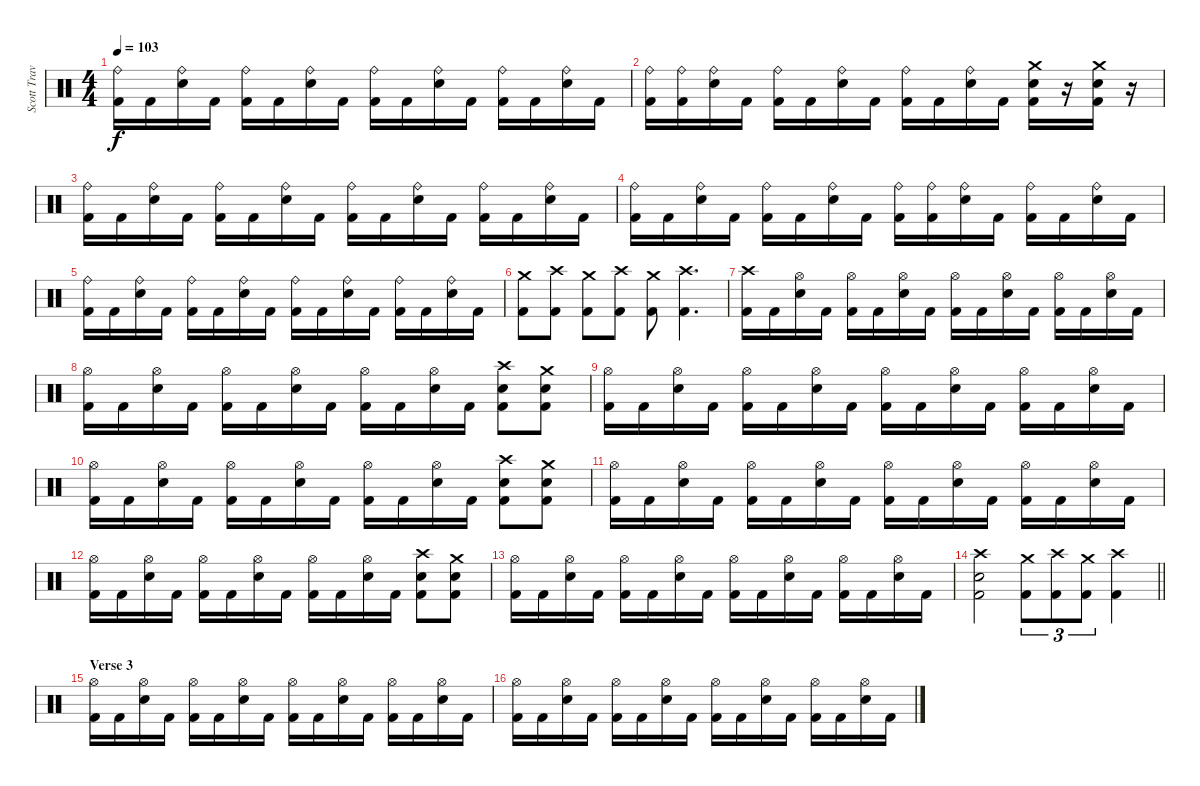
\track ("Scott Travis" "Scott Trav") {instrument percussion}
\staff {score}
\articulation defaults
\ts (4 4)
\tempo 103
\clef neutral
\ks c
("Ride (bell)" "Kick (hit) 2").16{dy f} "Kick (hit) 2".16 ("Ride (bell)" "Snare (hit) 2").16 "Kick (hit) 2".16 ("Ride (bell)" "Kick (hit) 2").16 "Kick (hit) 2".16 ("Ride (bell)" "Snare (hit) 2").16 "Kick (hit) 2".16 ("Ride (bell)" "Kick (hit) 2").16 "Kick (hit) 2".16 ("Ride (bell)" "Snare (hit) 2").16 "Kick (hit) 2".16 ("Ride (bell)" "Kick (hit) 2").16 "Kick (hit) 2".16 ("Ride (bell)" "Snare (hit) 2").16 "Kick (hit) 2".16 |
("Ride (bell)" "Kick (hit) 2").16 ("Ride (bell)" "Kick (hit) 2").16 ("Ride (bell)" "Snare (hit) 2").16 "Kick (hit) 2".16 ("Ride (bell)" "Kick (hit) 2").16 "Kick (hit) 2".16 ("Ride (bell)" "Snare (hit) 2").16 "Kick (hit) 2".16 ("Ride (bell)" "Kick (hit) 2").16 "Kick (hit) 2".16 ("Ride (bell)" "Snare (hit) 2").16 "Kick (hit) 2".16 ("Crash medium (hit)" "Snare (hit) 2" "Kick (hit) 2").16 r.16 ("Crash medium (hit)" "Snare (hit) 2" "Kick (hit) 2").16 r.16 |
("Ride (bell)" "Kick (hit) 2").16 "Kick (hit) 2".16 ("Ride (bell)" "Snare (hit) 2").16 "Kick (hit) 2".16 ("Ride (bell)" "Kick (hit) 2").16 "Kick (hit) 2".16 ("Ride (bell)" "Snare (hit) 2").16 "Kick (hit) 2".16 ("Ride (bell)" "Kick (hit) 2").16 "Kick (hit) 2".16 ("Ride (bell)" "Snare (hit) 2").16 "Kick (hit) 2".16 ("Ride (bell)" "Kick (hit) 2").16 "Kick (hit) 2".16 ("Ride (bell)" "Snare (hit) 2").16 "Kick (hit) 2".16 |
("Ride (bell)" "Kick (hit) 2").16 "Kick (hit) 2".16 ("Ride (bell)" "Snare (hit) 2").16 "Kick (hit) 2".16 ("Ride (bell)" "Kick (hit) 2").16 "Kick (hit) 2".16 ("Ride (bell)" "Snare (hit) 2").16 "Kick (hit) 2".16 ("Ride (bell)" "Kick (hit) 2").16 ("Ride (bell)" "Kick (hit) 2").16 ("Ride (bell)" "Snare (hit) 2").16 "Kick (hit) 2".16 ("Ride (bell)" "Kick (hit) 2").16 "Kick (hit) 2".16 ("Ride (bell)" "Snare (hit) 2").16 "Kick (hit) 2".16 |
("Ride (bell)" "Kick (hit) 2").16 "Kick (hit) 2".16 ("Ride (bell)" "Snare (hit) 2").16 "Kick (hit) 2".16 ("Ride (bell)" "Kick (hit) 2").16 "Kick (hit) 2".16 ("Ride (bell)" "Snare (hit) 2").16 "Kick (hit) 2".16 ("Ride (bell)" "Kick (hit) 2").16 "Kick (hit) 2".16 ("Ride (bell)" "Snare (hit) 2").16 "Kick (hit) 2".16 ("Ride (bell)" "Kick (hit) 2").16 "Kick (hit) 2".16 ("Ride (bell)" "Snare (hit) 2").16 "Kick (hit) 2".16 |
("Crash medium (hit)" "Kick (hit) 2").8 ("Crash high (hit)" "Kick (hit) 2").8 ("Crash medium (hit)" "Kick (hit) 2").8 ("Crash high (hit)" "Kick (hit) 2").8 ("Crash medium (hit)" "Kick (hit) 2").8 ("Crash high (hit)" "Kick (hit) 2").4{d} |
("Crash high (hit)" "Kick (hit) 2").16 "Kick (hit) 2".16 ("Hi-Hat (open)" "Snare (hit) 2").16 "Kick (hit) 2".16 ("Hi-Hat (open)" "Kick (hit) 2").16 "Kick (hit) 2".16 ("Hi-Hat (open)" "Snare (hit) 2").16 "Kick (hit) 2".16 ("Hi-Hat (open)" "Kick (hit) 2").16 "Kick (hit) 2".16 ("Hi-Hat (open)" "Snare (hit) 2").16 "Kick (hit) 2".16 ("Hi-Hat (open)" "Kick (hit) 2").16 "Kick (hit) 2".16 ("Hi-Hat (open)" "Snare (hit) 2").16 "Kick (hit) 2".16 |
("Hi-Hat (open)" "Kick (hit) 2").16 "Kick (hit) 2".16 ("Hi-Hat (open)" "Snare (hit) 2").16 "Kick (hit) 2".16 ("Hi-Hat (open)" "Kick (hit) 2").16 "Kick (hit) 2".16 ("Hi-Hat (open)" "Snare (hit) 2").16 "Kick (hit) 2".16 ("Hi-Hat (open)" "Kick (hit) 2").16 "Kick (hit) 2".16 ("Hi-Hat (open)" "Snare (hit) 2").16 "Kick (hit) 2".16 ("Crash high (hit)" "Snare (hit) 2" "Kick (hit) 2").8 ("Crash medium (hit)" "Snare (hit) 2" "Kick (hit) 2").8 |
("Hi-Hat (open)" "Kick (hit) 2").16 "Kick (hit) 2".16 ("Hi-Hat (open)" "Snare (hit) 2").16 "Kick (hit) 2".16 ("Hi-Hat (open)" "Kick (hit) 2").16 "Kick (hit) 2".16 ("Hi-Hat (open)" "Snare (hit) 2").16 "Kick (hit) 2".16 ("Hi-Hat (open)" "Kick (hit) 2").16 "Kick (hit) 2".16 ("Hi-Hat (open)" "Snare (hit) 2").16 "Kick (hit) 2".16 ("Hi-Hat (open)" "Kick (hit) 2").16 "Kick (hit) 2".16 ("Hi-Hat (open)" "Snare (hit) 2").16 "Kick (hit) 2".16 |
("Hi-Hat (open)" "Kick (hit) 2").16 "Kick (hit) 2".16 ("Hi-Hat (open)" "Snare (hit) 2").16 "Kick (hit) 2".16 ("Hi-Hat (open)" "Kick (hit) 2").16 "Kick (hit) 2".16 ("Hi-Hat (open)" "Snare (hit) 2").16 "Kick (hit) 2".16 ("Hi-Hat (open)" "Kick (hit) 2").16 "Kick (hit) 2".16 ("Hi-Hat (open)" "Snare (hit) 2").16 "Kick (hit) 2".16 ("Crash high (hit)" "Snare (hit) 2" "Kick (hit) 2").8 ("Crash medium (hit)" "Snare (hit) 2" "Kick (hit) 2").8 |
("Hi-Hat (open)" "Kick (hit) 2").16 "Kick (hit) 2".16 ("Hi-Hat (open)" "Snare (hit) 2").16 "Kick (hit) 2".16 ("Hi-Hat (open)" "Kick (hit) 2").16 "Kick (hit) 2".16 ("Hi-Hat (open)" "Snare (hit) 2").16 "Kick (hit) 2".16 ("Hi-Hat (open)" "Kick (hit) 2").16 "Kick (hit) 2".16 ("Hi-Hat (open)" "Snare (hit) 2").16 "Kick (hit) 2".16 ("Hi-Hat (open)" "Kick (hit) 2").16 "Kick (hit) 2".16 ("Hi-Hat (open)" "Snare (hit) 2").16 "Kick (hit) 2".16 |
("Hi-Hat (open)" "Kick (hit) 2").16 "Kick (hit) 2".16 ("Hi-Hat (open)" "Snare (hit) 2").16 "Kick (hit) 2".16 ("Hi-Hat (open)" "Kick (hit) 2").16 "Kick (hit) 2".16 ("Hi-Hat (open)" "Snare (hit) 2").16 "Kick (hit) 2".16 ("Hi-Hat (open)" "Kick (hit) 2").16 "Kick (hit) 2".16 ("Hi-Hat (open)" "Snare (hit) 2").16 "Kick (hit) 2".16 ("Crash high (hit)" "Snare (hit) 2" "Kick (hit) 2").8 ("Crash medium (hit)" "Snare (hit) 2" "Kick (hit) 2").8 |
("Hi-Hat (open)" "Kick (hit) 2").16 "Kick (hit) 2".16 ("Hi-Hat (open)" "Snare (hit) 2").16 "Kick (hit) 2".16 ("Hi-Hat (open)" "Kick (hit) 2").16 "Kick (hit) 2".16 ("Hi-Hat (open)" "Snare (hit) 2").16 "Kick (hit) 2".16 ("Hi-Hat (open)" "Kick (hit) 2").16 "Kick (hit) 2".16 ("Hi-Hat (open)" "Snare (hit) 2").16 "Kick (hit) 2".16 ("Hi-Hat (open)" "Kick (hit) 2").16 "Kick (hit) 2".16 ("Hi-Hat (open)" "Snare (hit) 2").16 "Kick (hit) 2".16 |
\barLineRight lightlight
("Crash high (hit)" "Snare (hit) 2" "Kick (hit) 2").2 ("Crash medium (hit)" "Kick (hit) 2").8{tu (3 2)} ("Crash high (hit)" "Kick (hit) 2").8{tu (3 2)} ("Crash medium (hit)" "Kick (hit) 2").8{tu (3 2)} ("Crash high (hit)" "Kick (hit) 2").4 |
\section ("" "Verse 3")
("Hi-Hat (open)" "Kick (hit) 2").16 "Kick (hit) 2".16 ("Hi-Hat (open)" "Snare (hit) 2").16 "Kick (hit) 2".16 ("Hi-Hat (open)" "Kick (hit) 2").16 "Kick (hit) 2".16 ("Hi-Hat (open)" "Snare (hit) 2").16 "Kick (hit) 2".16 ("Hi-Hat (open)" "Kick (hit) 2").16 "Kick (hit) 2".16 ("Hi-Hat (open)" "Snare (hit) 2").16 "Kick (hit) 2".16 ("Hi-Hat (open)" "Kick (hit) 2").16 "Kick (hit) 2".16 ("Hi-Hat (open)" "Snare (hit) 2").16 "Kick (hit) 2".16 |
("Hi-Hat (open)" "Kick (hit) 2").16 "Kick (hit) 2".16 ("Hi-Hat (open)" "Snare (hit) 2").16 "Kick (hit) 2".16 ("Hi-Hat (open)" "Kick (hit) 2").16 "Kick (hit) 2".16 ("Hi-Hat (open)" "Snare (hit) 2").16 "Kick (hit) 2".16 ("Hi-Hat (open)" "Kick (hit) 2").16 "Kick (hit) 2".16 ("Hi-Hat (open)" "Snare (hit) 2").16 "Kick (hit) 2".16 ("Hi-Hat (open)" "Kick (hit) 2").16 "Kick (hit) 2".16 ("Hi-Hat (open)" "Snare (hit) 2").16 "Kick (hit) 2".16
